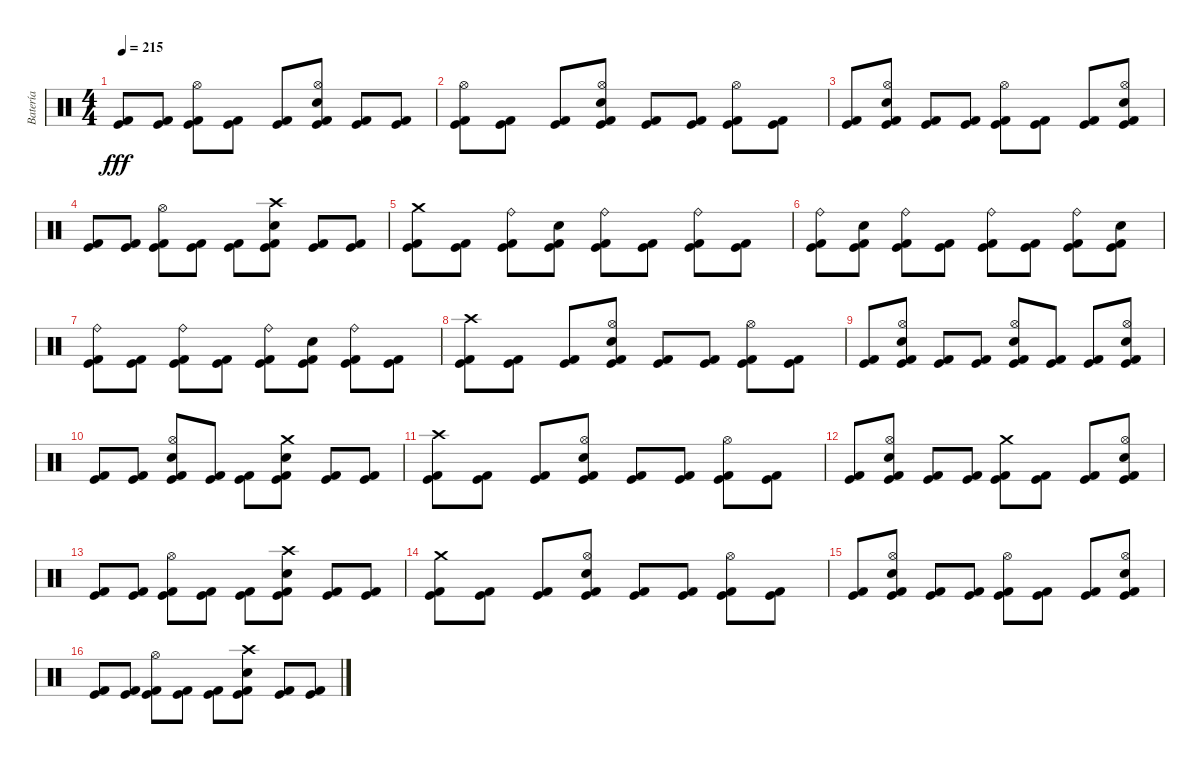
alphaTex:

\track ("Batería" "Batería") {instrument percussion}
\staff {score}
\articulation defaults
\ts (4 4)
\tempo 215
\clef neutral
\ks c
("Kick (hit) 2" "Kick (hit)").8{dy fff} ("Kick (hit) 2" "Kick (hit)").8 ("Hi-Hat (open)" "Kick (hit) 2" "Kick (hit)").8 ("Kick (hit) 2" "Kick (hit)").8 ("Kick (hit) 2" "Kick (hit)").8 ("Hi-Hat (open)" "Electric Snare (hit)" "Kick (hit) 2" "Kick (hit)").8 ("Kick (hit) 2" "Kick (hit)").8 ("Kick (hit) 2" "Kick (hit)").8 |
("Hi-Hat (open)" "Kick (hit) 2" "Kick (hit)").8 ("Kick (hit) 2" "Kick (hit)").8 ("Kick (hit) 2" "Kick (hit)").8 ("Hi-Hat (open)" "Electric Snare (hit)" "Kick (hit) 2" "Kick (hit)").8 ("Kick (hit) 2" "Kick (hit)").8 ("Kick (hit) 2" "Kick (hit)").8 ("Hi-Hat (open)" "Kick (hit) 2" "Kick (hit)").8 ("Kick (hit) 2" "Kick (hit)").8 |
("Kick (hit) 2" "Kick (hit)").8 ("Hi-Hat (open)" "Electric Snare (hit)" "Kick (hit) 2" "Kick (hit)").8 ("Kick (hit) 2" "Kick (hit)").8 ("Kick (hit) 2" "Kick (hit)").8 ("Hi-Hat (open)" "Kick (hit) 2" "Kick (hit)").8 ("Kick (hit) 2" "Kick (hit)").8 ("Kick (hit) 2" "Kick (hit)").8 ("Hi-Hat (open)" "Electric Snare (hit)" "Kick (hit) 2" "Kick (hit)").8 |
("Kick (hit) 2" "Kick (hit)").8 ("Kick (hit) 2" "Kick (hit)").8 ("Hi-Hat (open)" "Kick (hit) 2" "Kick (hit)").8 ("Kick (hit) 2" "Kick (hit)").8 ("Kick (hit) 2" "Kick (hit)").8 ("Crash high (hit)" "Electric Snare (hit)" "Kick (hit) 2" "Kick (hit)").8 ("Kick (hit) 2" "Kick (hit)").8 ("Kick (hit) 2" "Kick (hit)").8 |
("Crash medium (hit)" "Kick (hit) 2" "Kick (hit)").8 ("Kick (hit) 2" "Kick (hit)").8 ("Ride (bell)" "Kick (hit) 2" "Kick (hit)").8 ("Electric Snare (hit)" "Kick (hit) 2" "Kick (hit)").8 ("Ride (bell)" "Kick (hit) 2" "Kick (hit)").8 ("Kick (hit) 2" "Kick (hit)").8 ("Ride (bell)" "Kick (hit) 2" "Kick (hit)").8 ("Kick (hit) 2" "Kick (hit)").8 |
("Ride (bell)" "Kick (hit) 2" "Kick (hit)").8 ("Electric Snare (hit)" "Kick (hit) 2" "Kick (hit)").8 ("Ride (bell)" "Kick (hit) 2" "Kick (hit)").8 ("Kick (hit) 2" "Kick (hit)").8 ("Ride (bell)" "Kick (hit) 2" "Kick (hit)").8 ("Kick (hit) 2" "Kick (hit)").8 ("Ride (bell)" "Kick (hit) 2" "Kick (hit)").8 ("Electric Snare (hit)" "Kick (hit) 2" "Kick (hit)").8 |
("Ride (bell)" "Kick (hit) 2" "Kick (hit)").8 ("Kick (hit) 2" "Kick (hit)").8 ("Ride (bell)" "Kick (hit) 2" "Kick (hit)").8 ("Kick (hit) 2" "Kick (hit)").8 ("Ride (bell)" "Kick (hit) 2" "Kick (hit)").8 ("Electric Snare (hit)" "Kick (hit) 2" "Kick (hit)").8 ("Ride (bell)" "Kick (hit) 2" "Kick (hit)").8 ("Kick (hit) 2" "Kick (hit)").8 |
("Crash high (hit)" "Kick (hit) 2" "Kick (hit)").8 ("Kick (hit) 2" "Kick (hit)").8 ("Kick (hit) 2" "Kick (hit)").8 ("Hi-Hat (open)" "Electric Snare (hit)" "Kick (hit) 2" "Kick (hit)").8 ("Kick (hit) 2" "Kick (hit)").8 ("Kick (hit) 2" "Kick (hit)").8 ("Hi-Hat (open)" "Kick (hit) 2" "Kick (hit)").8 ("Kick (hit) 2" "Kick (hit)").8 |
("Kick (hit) 2" "Kick (hit)").8 ("Hi-Hat (open)" "Electric Snare (hit)" "Kick (hit) 2" "Kick (hit)").8 ("Kick (hit) 2" "Kick (hit)").8 ("Kick (hit) 2" "Kick (hit)").8 ("Hi-Hat (open)" "Electric Snare (hit)" "Kick (hit) 2" "Kick (hit)").8 ("Kick (hit) 2" "Kick (hit)").8 ("Kick (hit) 2" "Kick (hit)").8 ("Hi-Hat (open)" "Electric Snare (hit)" "Kick (hit) 2" "Kick (hit)").8 |
("Kick (hit) 2" "Kick (hit)").8 ("Kick (hit) 2" "Kick (hit)").8 ("Hi-Hat (open)" "Electric Snare (hit)" "Kick (hit) 2" "Kick (hit)").8 ("Kick (hit) 2" "Kick (hit)").8 ("Kick (hit) 2" "Kick (hit)").8 ("Crash medium (hit)" "Electric Snare (hit)" "Kick (hit) 2" "Kick (hit)").8 ("Kick (hit) 2" "Kick (hit)").8 ("Kick (hit) 2" "Kick (hit)").8 |
("Crash high (hit)" "Kick (hit) 2" "Kick (hit)").8 ("Kick (hit) 2" "Kick (hit)").8 ("Kick (hit) 2" "Kick (hit)").8 ("Hi-Hat (open)" "Electric Snare (hit)" "Kick (hit) 2" "Kick (hit)").8 ("Kick (hit) 2" "Kick (hit)").8 ("Kick (hit) 2" "Kick (hit)").8 ("Hi-Hat (open)" "Kick (hit) 2" "Kick (hit)").8 ("Kick (hit) 2" "Kick (hit)").8 |
("Kick (hit) 2" "Kick (hit)").8 ("Hi-Hat (open)" "Electric Snare (hit)" "Kick (hit) 2" "Kick (hit)").8 ("Kick (hit) 2" "Kick (hit)").8 ("Kick (hit) 2" "Kick (hit)").8 ("Crash medium (hit)" "Kick (hit) 2" "Kick (hit)").8 ("Kick (hit) 2" "Kick (hit)").8 ("Kick (hit) 2" "Kick (hit)").8 ("Hi-Hat (open)" "Electric Snare (hit)" "Kick (hit) 2" "Kick (hit)").8 |
("Kick (hit) 2" "Kick (hit)").8 ("Kick (hit) 2" "Kick (hit)").8 ("Hi-Hat (open)" "Kick (hit) 2" "Kick (hit)").8 ("Kick (hit) 2" "Kick (hit)").8 ("Kick (hit) 2" "Kick (hit)").8 ("Crash high (hit)" "Electric Snare (hit)" "Kick (hit) 2" "Kick (hit)").8 ("Kick (hit) 2" "Kick (hit)").8 ("Kick (hit) 2" "Kick (hit)").8 |
("Crash medium (hit)" "Kick (hit) 2" "Kick (hit)").8 ("Kick (hit) 2" "Kick (hit)").8 ("Kick (hit) 2" "Kick (hit)").8 ("Hi-Hat (open)" "Electric Snare (hit)" "Kick (hit) 2" "Kick (hit)").8 ("Kick (hit) 2" "Kick (hit)").8 ("Kick (hit) 2" "Kick (hit)").8 ("Hi-Hat (open)" "Kick (hit) 2" "Kick (hit)").8 ("Kick (hit) 2" "Kick (hit)").8 |
("Kick (hit) 2" "Kick (hit)").8 ("Hi-Hat (open)" "Electric Snare (hit)" "Kick (hit) 2" "Kick (hit)").8 ("Kick (hit) 2" "Kick (hit)").8 ("Kick (hit) 2" "Kick (hit)").8 ("Hi-Hat (open)" "Kick (hit) 2" "Kick (hit)").8 ("Kick (hit) 2" "Kick (hit)").8 ("Kick (hit) 2" "Kick (hit)").8 ("Hi-Hat (open)" "Electric Snare (hit)" "Kick (hit) 2" "Kick (hit)").8 |
("Kick (hit) 2" "Kick (hit)").8 ("Kick (hit) 2" "Kick (hit)").8 ("Hi-Hat (open)" "Kick (hit) 2" "Kick (hit)").8 ("Kick (hit) 2" "Kick (hit)").8 ("Kick (hit) 2" "Kick (hit)").8 ("Crash high (hit)" "Electric Snare (hit)" "Kick (hit) 2" "Kick (hit)").8 ("Kick (hit) 2" "Kick (hit)").8 ("Kick (hit) 2" "Kick (hit)").8
